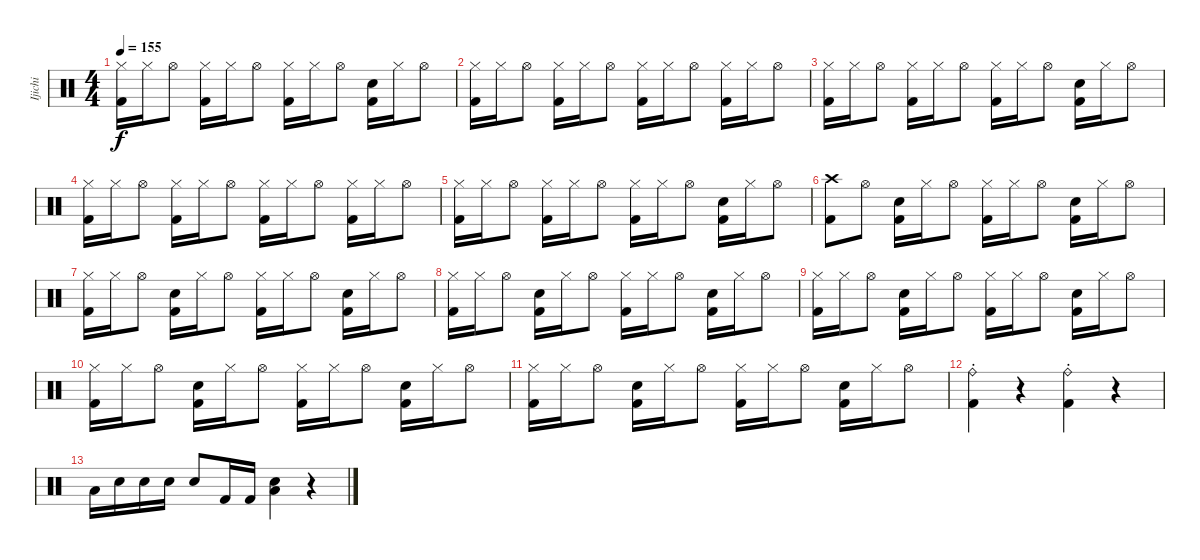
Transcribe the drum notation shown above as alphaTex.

\track ("Ijichi" "Ijichi") {instrument percussion}
\staff {score}
\articulation defaults
\ts (4 4)
\tempo 155
\clef neutral
\ks c
("Hi-Hat (closed)" "Kick (hit) 2").16{dy f} "Hi-Hat (closed)".16 "Hi-Hat (open)".8 ("Hi-Hat (closed)" "Kick (hit) 2").16 "Hi-Hat (closed)".16 "Hi-Hat (open)".8 ("Hi-Hat (closed)" "Kick (hit) 2").16 "Hi-Hat (closed)".16 "Hi-Hat (open)".8 ("Snare (hit) 2" "Kick (hit) 2").16 "Hi-Hat (closed)".16 "Hi-Hat (open)".8 |
("Hi-Hat (closed)" "Kick (hit) 2").16 "Hi-Hat (closed)".16 "Hi-Hat (open)".8 ("Hi-Hat (closed)" "Kick (hit) 2").16 "Hi-Hat (closed)".16 "Hi-Hat (open)".8 ("Hi-Hat (closed)" "Kick (hit) 2").16 "Hi-Hat (closed)".16 "Hi-Hat (open)".8 ("Hi-Hat (closed)" "Kick (hit) 2").16 "Hi-Hat (closed)".16 "Hi-Hat (open)".8 |
("Hi-Hat (closed)" "Kick (hit) 2").16 "Hi-Hat (closed)".16 "Hi-Hat (open)".8 ("Hi-Hat (closed)" "Kick (hit) 2").16 "Hi-Hat (closed)".16 "Hi-Hat (open)".8 ("Hi-Hat (closed)" "Kick (hit) 2").16 "Hi-Hat (closed)".16 "Hi-Hat (open)".8 ("Snare (hit) 2" "Kick (hit) 2").16 "Hi-Hat (closed)".16 "Hi-Hat (open)".8 |
("Hi-Hat (closed)" "Kick (hit) 2").16 "Hi-Hat (closed)".16 "Hi-Hat (open)".8 ("Hi-Hat (closed)" "Kick (hit) 2").16 "Hi-Hat (closed)".16 "Hi-Hat (open)".8 ("Hi-Hat (closed)" "Kick (hit) 2").16 "Hi-Hat (closed)".16 "Hi-Hat (open)".8 ("Hi-Hat (closed)" "Kick (hit) 2").16 "Hi-Hat (closed)".16 "Hi-Hat (open)".8 |
("Hi-Hat (closed)" "Kick (hit) 2").16 "Hi-Hat (closed)".16 "Hi-Hat (open)".8 ("Hi-Hat (closed)" "Kick (hit) 2").16 "Hi-Hat (closed)".16 "Hi-Hat (open)".8 ("Hi-Hat (closed)" "Kick (hit) 2").16 "Hi-Hat (closed)".16 "Hi-Hat (open)".8 ("Snare (hit) 2" "Kick (hit) 2").16 "Hi-Hat (closed)".16 "Hi-Hat (open)".8 |
("Crash high (hit)" "Kick (hit) 2").8 "Hi-Hat (open)".8 ("Snare (hit) 2" "Kick (hit) 2").16 "Hi-Hat (closed)".16 "Hi-Hat (open)".8 ("Hi-Hat (closed)" "Kick (hit) 2").16 "Hi-Hat (closed)".16 "Hi-Hat (open)".8 ("Snare (hit) 2" "Kick (hit) 2").16 "Hi-Hat (closed)".16 "Hi-Hat (open)".8 |
("Hi-Hat (closed)" "Kick (hit) 2").16 "Hi-Hat (closed)".16 "Hi-Hat (open)".8 ("Snare (hit) 2" "Kick (hit) 2").16 "Hi-Hat (closed)".16 "Hi-Hat (open)".8 ("Hi-Hat (closed)" "Kick (hit) 2").16 "Hi-Hat (closed)".16 "Hi-Hat (open)".8 ("Snare (hit) 2" "Kick (hit) 2").16 "Hi-Hat (closed)".16 "Hi-Hat (open)".8 |
("Hi-Hat (closed)" "Kick (hit) 2").16 "Hi-Hat (closed)".16 "Hi-Hat (open)".8 ("Snare (hit) 2" "Kick (hit) 2").16 "Hi-Hat (closed)".16 "Hi-Hat (open)".8 ("Hi-Hat (closed)" "Kick (hit) 2").16 "Hi-Hat (closed)".16 "Hi-Hat (open)".8 ("Snare (hit) 2" "Kick (hit) 2").16 "Hi-Hat (closed)".16 "Hi-Hat (open)".8 |
("Hi-Hat (closed)" "Kick (hit) 2").16 "Hi-Hat (closed)".16 "Hi-Hat (open)".8 ("Snare (hit) 2" "Kick (hit) 2").16 "Hi-Hat (closed)".16 "Hi-Hat (open)".8 ("Hi-Hat (closed)" "Kick (hit) 2").16 "Hi-Hat (closed)".16 "Hi-Hat (open)".8 ("Snare (hit) 2" "Kick (hit) 2").16 "Hi-Hat (closed)".16 "Hi-Hat (open)".8 |
("Hi-Hat (closed)" "Kick (hit) 2").16 "Hi-Hat (closed)".16 "Hi-Hat (open)".8 ("Snare (hit) 2" "Kick (hit) 2").16 "Hi-Hat (closed)".16 "Hi-Hat (open)".8 ("Hi-Hat (closed)" "Kick (hit) 2").16 "Hi-Hat (closed)".16 "Hi-Hat (open)".8 ("Snare (hit) 2" "Kick (hit) 2").16 "Hi-Hat (closed)".16 "Hi-Hat (open)".8 |
("Hi-Hat (closed)" "Kick (hit) 2").16 "Hi-Hat (closed)".16 "Hi-Hat (open)".8 ("Snare (hit) 2" "Kick (hit) 2").16 "Hi-Hat (closed)".16 "Hi-Hat (open)".8 ("Hi-Hat (closed)" "Kick (hit) 2").16 "Hi-Hat (closed)".16 "Hi-Hat (open)".8 ("Snare (hit) 2" "Kick (hit) 2").16 "Hi-Hat (closed)".16 "Hi-Hat (open)".8 |
("Ride (bell)"{st} "Kick (hit) 2").4 r.4 ("Ride (bell)"{st} "Kick (hit) 2").4 r.4 |
"Low Tom (hit)".16 "Snare (hit) 2".16 "Snare (hit) 2".16 "Snare (hit) 2".16 "Snare (hit) 2".8 "Kick (hit) 2".16 "Kick (hit) 2".16 ("Snare (hit) 2" "Low Floor Tom (hit)").4 r.4
